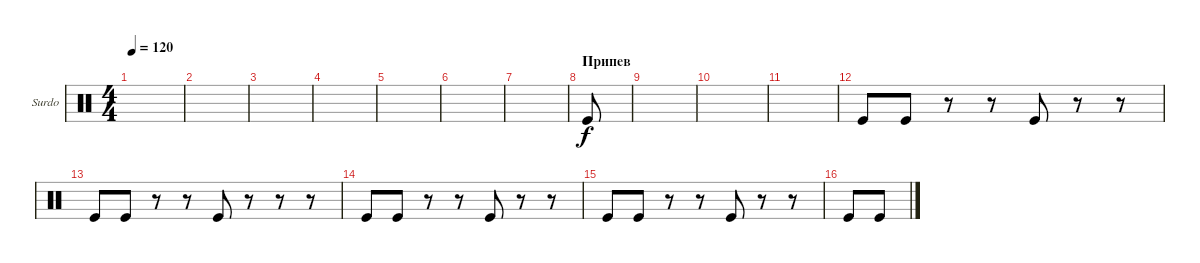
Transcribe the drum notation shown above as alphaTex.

\defaultSystemsLayout 4
\bracketExtendMode groupsimilarinstruments
\firstSystemTrackNameOrientation horizontal
\otherSystemsTrackNameOrientation horizontal
\track ("Surdo" "Surdo") {instrument percussion}
\staff {score}
\articulation defaults
\ts (4 4)
\tempo 120
\clef neutral
\ks c
|
|
|
|
|
|
|
\section ("" "Припев")
"Kick (hit)".8 |
|
|
|
"Kick (hit)".8 "Kick (hit)".8 r.8 r.8 "Kick (hit)".8 r.8 r.8 |
"Kick (hit)".8 "Kick (hit)".8 r.8 r.8 "Kick (hit)".8 r.8 r.8 r.8 |
"Kick (hit)".8 "Kick (hit)".8 r.8 r.8 "Kick (hit)".8 r.8 r.8 |
"Kick (hit)".8 "Kick (hit)".8 r.8 r.8 "Kick (hit)".8 r.8 r.8 |
"Kick (hit)".8 "Kick (hit)".8
